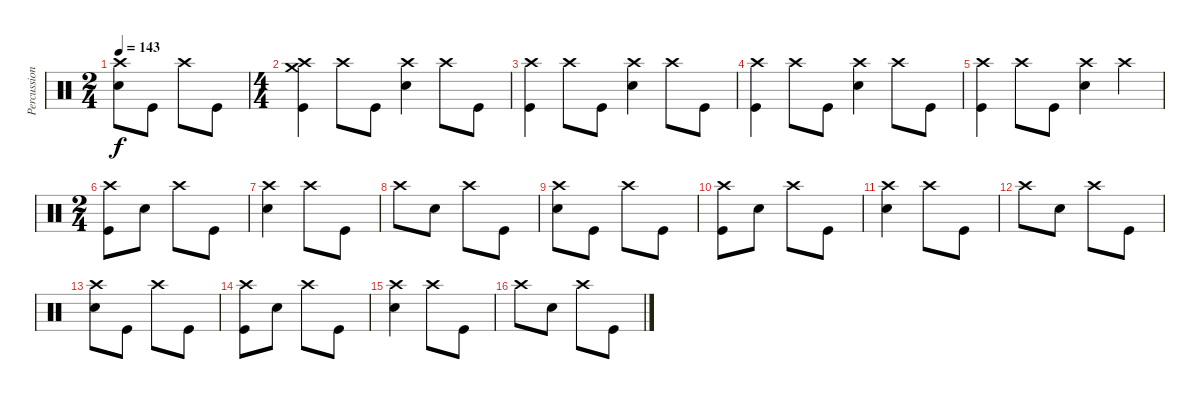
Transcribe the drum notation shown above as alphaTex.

\track ("Percussion" "Percussion") {instrument percussion}
\staff {score}
\articulation defaults
\ts (2 4)
\tempo 143
\clef neutral
\ks c
("Crash high (hit)" "Electric Snare (hit)").8{dy f} "Kick (hit)".8 "Crash high (hit)".8 "Kick (hit)".8 |
\ts (4 4)
("Crash high (hit)" "Crash medium (hit)" "Kick (hit)").4 "Crash high (hit)".8 "Kick (hit)".8 ("Crash high (hit)" "Electric Snare (hit)").4 "Crash high (hit)".8 "Kick (hit)".8 |
("Crash high (hit)" "Kick (hit)").4 "Crash high (hit)".8 "Kick (hit)".8 ("Crash high (hit)" "Electric Snare (hit)").4 "Crash high (hit)".8 "Kick (hit)".8 |
("Crash high (hit)" "Kick (hit)").4 "Crash high (hit)".8 "Kick (hit)".8 ("Crash high (hit)" "Electric Snare (hit)").4 "Crash high (hit)".8 "Kick (hit)".8 |
("Crash high (hit)" "Kick (hit)").4 "Crash high (hit)".8 "Kick (hit)".8 ("Crash high (hit)" "Electric Snare (hit)").4 "Crash high (hit)".4 |
\ts (2 4)
("Crash high (hit)" "Kick (hit)").8 "Electric Snare (hit)".8 "Crash high (hit)".8 "Kick (hit)".8 |
("Crash high (hit)" "Electric Snare (hit)").4 "Crash high (hit)".8 "Kick (hit)".8 |
"Crash high (hit)".8 "Electric Snare (hit)".8 "Crash high (hit)".8 "Kick (hit)".8 |
("Crash high (hit)" "Electric Snare (hit)").8 "Kick (hit)".8 "Crash high (hit)".8 "Kick (hit)".8 |
("Crash high (hit)" "Kick (hit)").8 "Electric Snare (hit)".8 "Crash high (hit)".8 "Kick (hit)".8 |
("Crash high (hit)" "Electric Snare (hit)").4 "Crash high (hit)".8 "Kick (hit)".8 |
"Crash high (hit)".8 "Electric Snare (hit)".8 "Crash high (hit)".8 "Kick (hit)".8 |
("Crash high (hit)" "Electric Snare (hit)").8 "Kick (hit)".8 "Crash high (hit)".8 "Kick (hit)".8 |
("Crash high (hit)" "Kick (hit)").8 "Electric Snare (hit)".8 "Crash high (hit)".8 "Kick (hit)".8 |
("Crash high (hit)" "Electric Snare (hit)").4 "Crash high (hit)".8 "Kick (hit)".8 |
"Crash high (hit)".8 "Electric Snare (hit)".8 "Crash high (hit)".8 "Kick (hit)".8
